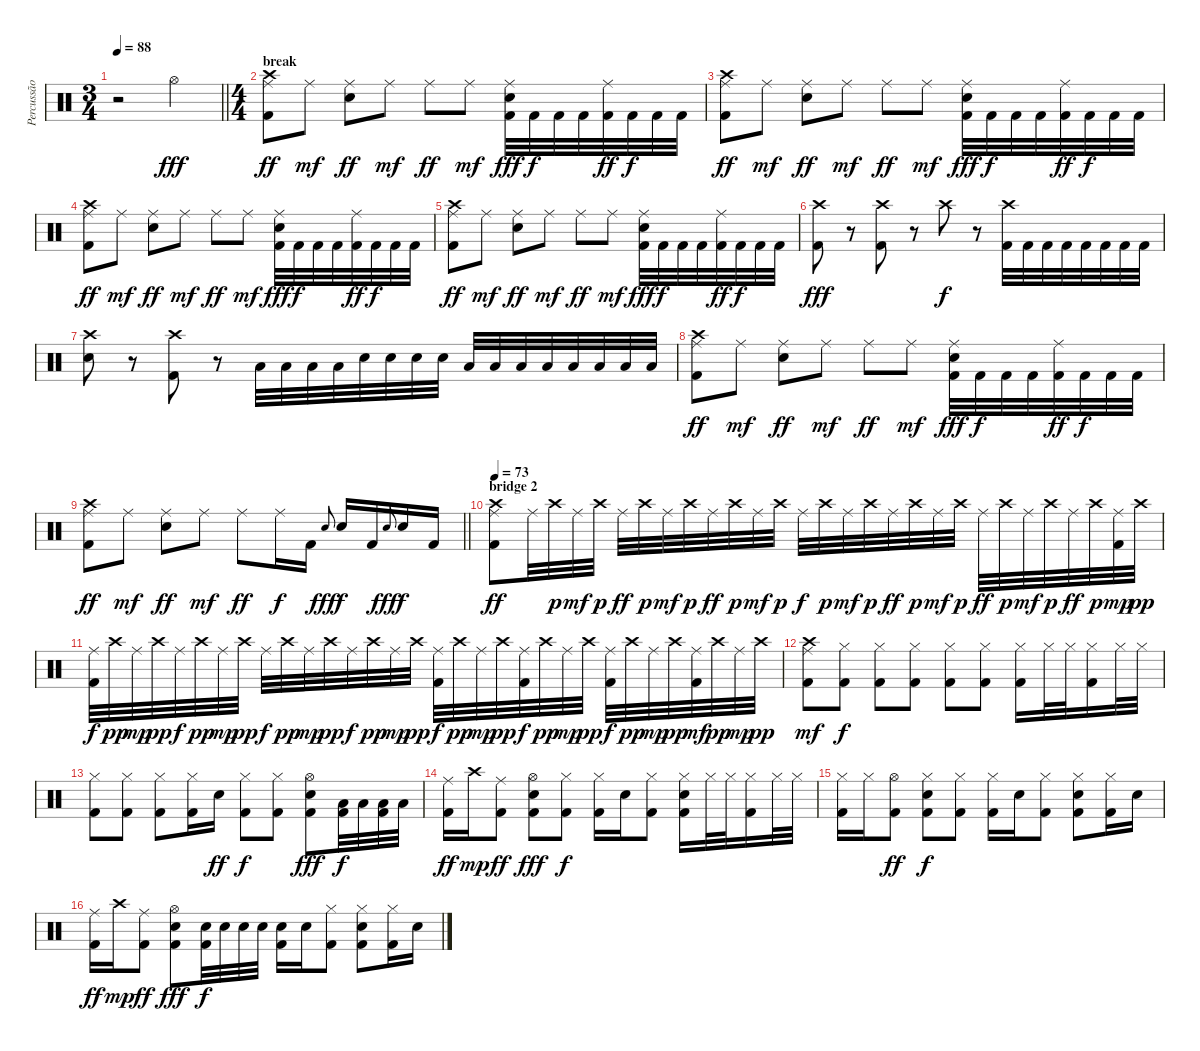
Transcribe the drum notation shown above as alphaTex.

\track ("Percussão" "Percussão") {instrument percussion}
\staff {score}
\articulation defaults
\ts (3 4)
\tempo 88
\clef neutral
\barLineRight lightlight
\ks c
r.2{dy ff} "Hi-Hat (open)".4{dy fff} |
\ts (4 4)
\section ("" "break")
("Crash high (hit)" "Ride (middle)" "Kick (hit) 2").8{dy ff} "Ride (middle)".8{dy mf} ("Ride (middle)" "Electric Snare (hit)").8{dy ff} "Ride (middle)".8{dy mf} "Ride (middle)".8{dy ff} "Ride (middle)".8{dy mf} ("Ride (middle)" "Electric Snare (hit)" "Kick (hit) 2").32{dy fff} "Kick (hit) 2".32{dy f} "Kick (hit) 2".32 "Kick (hit) 2".32 ("Ride (middle)" "Kick (hit) 2").32{dy ff} "Kick (hit) 2".32{dy f} "Kick (hit) 2".32 "Kick (hit) 2".32 |
("Crash high (hit)" "Ride (middle)" "Kick (hit) 2").8{dy ff} "Ride (middle)".8{dy mf} ("Ride (middle)" "Electric Snare (hit)").8{dy ff} "Ride (middle)".8{dy mf} "Ride (middle)".8{dy ff} "Ride (middle)".8{dy mf} ("Ride (middle)" "Electric Snare (hit)" "Kick (hit) 2").32{dy fff} "Kick (hit) 2".32{dy f} "Kick (hit) 2".32 "Kick (hit) 2".32 ("Ride (middle)" "Kick (hit) 2").32{dy ff} "Kick (hit) 2".32{dy f} "Kick (hit) 2".32 "Kick (hit) 2".32 |
("Crash high (hit)" "Ride (middle)" "Kick (hit) 2").8{dy ff} "Ride (middle)".8{dy mf} ("Ride (middle)" "Electric Snare (hit)").8{dy ff} "Ride (middle)".8{dy mf} "Ride (middle)".8{dy ff} "Ride (middle)".8{dy mf} ("Ride (middle)" "Electric Snare (hit)" "Kick (hit) 2").32{dy fff} "Kick (hit) 2".32{dy f} "Kick (hit) 2".32 "Kick (hit) 2".32 ("Ride (middle)" "Kick (hit) 2").32{dy ff} "Kick (hit) 2".32{dy f} "Kick (hit) 2".32 "Kick (hit) 2".32 |
("Crash high (hit)" "Ride (middle)" "Kick (hit) 2").8{dy ff} "Ride (middle)".8{dy mf} ("Ride (middle)" "Electric Snare (hit)").8{dy ff} "Ride (middle)".8{dy mf} "Ride (middle)".8{dy ff} "Ride (middle)".8{dy mf} ("Ride (middle)" "Electric Snare (hit)" "Kick (hit) 2").32{dy fff} "Kick (hit) 2".32{dy f} "Kick (hit) 2".32 "Kick (hit) 2".32 ("Ride (middle)" "Kick (hit) 2").32{dy ff} "Kick (hit) 2".32{dy f} "Kick (hit) 2".32 "Kick (hit) 2".32 |
("Crash high (hit)" "Kick (hit) 2").8{dy fff} r.8 ("Crash high (hit)" "Kick (hit) 2").8 r.8 "Crash high (hit)".8{dy f} r.8 ("Crash high (hit)" "Kick (hit) 2").32 "Kick (hit) 2".32 "Kick (hit) 2".32 "Kick (hit) 2".32 "Kick (hit) 2".32 "Kick (hit) 2".32 "Kick (hit) 2".32 "Kick (hit) 2".32 |
("Crash high (hit)" "Hand Clap (hit)").8 r.8 ("Crash high (hit)" "Kick (hit) 2").8 r.8 "Low Tom (hit)".32 "Low Tom (hit)".32 "Low Tom (hit)".32 "Low Tom (hit)".32 "Electric Snare (hit)".32 "Electric Snare (hit)".32 "Electric Snare (hit)".32 "Electric Snare (hit)".32 "Low Tom (hit)".32 "Low Tom (hit)".32 "Low Tom (hit)".32 "Low Tom (hit)".32 "Low Floor Tom (hit)".32 "Low Floor Tom (hit)".32 "Low Floor Tom (hit)".32 "Low Floor Tom (hit)".32 |
("Crash high (hit)" "Ride (middle)" "Kick (hit) 2").8{dy ff} "Ride (middle)".8{dy mf} ("Ride (middle)" "Electric Snare (hit)").8{dy ff} "Ride (middle)".8{dy mf} "Ride (middle)".8{dy ff} "Ride (middle)".8{dy mf} ("Ride (middle)" "Electric Snare (hit)" "Kick (hit) 2").32{dy fff} "Kick (hit) 2".32{dy f} "Kick (hit) 2".32 "Kick (hit) 2".32 ("Ride (middle)" "Kick (hit) 2").32{dy ff} "Kick (hit) 2".32{dy f} "Kick (hit) 2".32 "Kick (hit) 2".32 |
\barLineRight lightlight
("Crash high (hit)" "Ride (middle)" "Kick (hit) 2").8{dy ff} "Ride (middle)".8{dy mf} ("Ride (middle)" "Electric Snare (hit)").8{dy ff} "Ride (middle)".8{dy mf} "Ride (middle)".8{dy ff} "Ride (middle)".16{dy f} "Kick (hit) 2".16 "Electric Snare (hit)".8{gr onbeat dy fff} "Electric Snare (hit)".16{dy f} "Kick (hit) 2".16 "Electric Snare (hit)".8{gr onbeat dy fff} "Electric Snare (hit)".16{dy f} "Kick (hit) 2".16 |
\section ("" "bridge 2")
\tempo 73
("Crash high (hit)" "Ride (middle)" "Kick (hit) 2").8{dy ff} "Ride (middle)".32 "Crash high (hit)".32{dy p} "Ride (middle)".32{dy mf} "Crash high (hit)".32{dy p} "Ride (middle)".32{dy ff} "Crash high (hit)".32{dy p} "Ride (middle)".32{dy mf} "Crash high (hit)".32{dy p} "Ride (middle)".32{dy ff} "Crash high (hit)".32{dy p} "Ride (middle)".32{dy mf} "Crash high (hit)".32{dy p} "Ride (middle)".32{dy f} "Crash high (hit)".32{dy p} "Ride (middle)".32{dy mf} "Crash high (hit)".32{dy p} "Ride (middle)".32{dy ff} "Crash high (hit)".32{dy p} "Ride (middle)".32{dy mf} "Crash high (hit)".32{dy p} "Ride (middle)".32{dy ff} "Crash high (hit)".32{dy p} "Ride (middle)".32{dy mf} "Crash high (hit)".32{dy p} "Ride (middle)".32{dy ff} "Crash high (hit)".32{dy p} ("Ride (middle)" "Kick (hit) 2").32{dy mp} "Crash high (hit)".32{dy pp} |
("Ride (middle)" "Kick (hit) 2").32{dy f} "Crash high (hit)".32{dy pp} "Ride (middle)".32{dy mp} "Crash high (hit)".32{dy pp} "Ride (middle)".32{dy f} "Crash high (hit)".32{dy pp} "Ride (middle)".32{dy mp} "Crash high (hit)".32{dy pp} "Ride (middle)".32{dy f} "Crash high (hit)".32{dy pp} "Ride (middle)".32{dy mp} "Crash high (hit)".32{dy pp} "Ride (middle)".32{dy f} "Crash high (hit)".32{dy pp} "Ride (middle)".32{dy mp} "Crash high (hit)".32{dy pp} ("Ride (middle)" "Kick (hit) 2").32{dy f} "Crash high (hit)".32{dy pp} "Ride (middle)".32{dy mp} "Crash high (hit)".32{dy pp} ("Ride (middle)" "Kick (hit) 2").32{dy f} "Crash high (hit)".32{dy pp} "Ride (middle)".32{dy mp} "Crash high (hit)".32{dy pp} ("Ride (middle)" "Kick (hit) 2").32{dy f} "Crash high (hit)".32{dy pp} "Ride (middle)".32{dy mp} "Crash high (hit)".32{dy pp} ("Ride (middle)" "Kick (hit) 2").32{dy mf} "Crash high (hit)".32{dy pp} "Ride (middle)".32{dy mp} "Crash high (hit)".32{dy pp} |
("Crash high (hit)" "Ride (middle)" "Kick (hit) 2").8{dy mf} ("Hi-Hat (closed)" "Kick (hit) 2").8{dy f} ("Hi-Hat (closed)" "Kick (hit) 2").8 ("Hi-Hat (closed)" "Kick (hit) 2").8 ("Hi-Hat (closed)" "Kick (hit) 2").8 ("Hi-Hat (closed)" "Kick (hit) 2").8 ("Hi-Hat (closed)" "Kick (hit) 2").16 "Hi-Hat (closed)".32 "Hi-Hat (closed)".32 ("Hi-Hat (closed)" "Kick (hit) 2").16 "Hi-Hat (closed)".32 "Hi-Hat (closed)".32 |
("Hi-Hat (closed)" "Kick (hit) 2").8 ("Hi-Hat (closed)" "Kick (hit) 2").8 ("Hi-Hat (closed)" "Kick (hit) 2").8 ("Hi-Hat (closed)" "Kick (hit) 2").16 "Electric Snare (hit)".16{dy ff} ("Hi-Hat (closed)" "Kick (hit) 2").8{dy f} ("Hi-Hat (closed)" "Kick (hit) 2").8 ("Hi-Hat (open)" "Electric Snare (hit)" "Kick (hit) 2").8{dy fff} ("Low Tom (hit)" "Kick (hit) 2").32{dy f} "Low Tom (hit)".32 ("Low Floor Tom (hit)" "Kick (hit) 2").32 "Low Floor Tom (hit)".32 |
("Ride (middle)" "Kick (hit) 2").16{dy ff} "Crash high (hit)".16{dy mp} ("Ride (middle)" "Kick (hit) 2").8{dy ff} ("Hi-Hat (open)" "Electric Snare (hit)" "Kick (hit) 2").8{dy fff} ("Hi-Hat (closed)" "Kick (hit) 2").8{dy f} ("Hi-Hat (closed)" "Kick (hit) 2").16 "Electric Snare (hit)".16 ("Hi-Hat (closed)" "Kick (hit) 2").8 ("Hi-Hat (closed)" "Electric Snare (hit)" "Kick (hit) 2").16 "Hi-Hat (closed)".32 "Hi-Hat (closed)".32 ("Hi-Hat (closed)" "Kick (hit) 2").16 "Hi-Hat (closed)".32 "Hi-Hat (closed)".32 |
("Hi-Hat (closed)" "Kick (hit) 2").16 "Hi-Hat (closed)".16 ("Hi-Hat (open)" "Kick (hit) 2").8{dy ff} ("Hi-Hat (closed)" "Electric Snare (hit)" "Kick (hit) 2").8{dy f} ("Hi-Hat (closed)" "Kick (hit) 2").8 ("Hi-Hat (closed)" "Kick (hit) 2").16 "Electric Snare (hit)".16 ("Hi-Hat (closed)" "Kick (hit) 2").8 ("Hi-Hat (closed)" "Electric Snare (hit)" "Kick (hit) 2").8 ("Hi-Hat (closed)" "Kick (hit) 2").16 "Electric Snare (hit)".16 |
("Ride (middle)" "Kick (hit) 2").16{dy ff} "Crash high (hit)".16{dy mp} ("Ride (middle)" "Kick (hit) 2").8{dy ff} ("Hi-Hat (open)" "Electric Snare (hit)" "Kick (hit) 2").8{dy fff} ("Electric Snare (hit)" "Kick (hit) 2").32{dy f} "Electric Snare (hit)".32 "Electric Snare (hit)".32 "Electric Snare (hit)".32 ("Electric Snare (hit)" "Kick (hit) 2").16 "Electric Snare (hit)".16 ("Hi-Hat (closed)" "Kick (hit) 2").8 ("Hi-Hat (closed)" "Electric Snare (hit)" "Kick (hit) 2").8 ("Hi-Hat (closed)" "Kick (hit) 2").16 "Electric Snare (hit)".16
